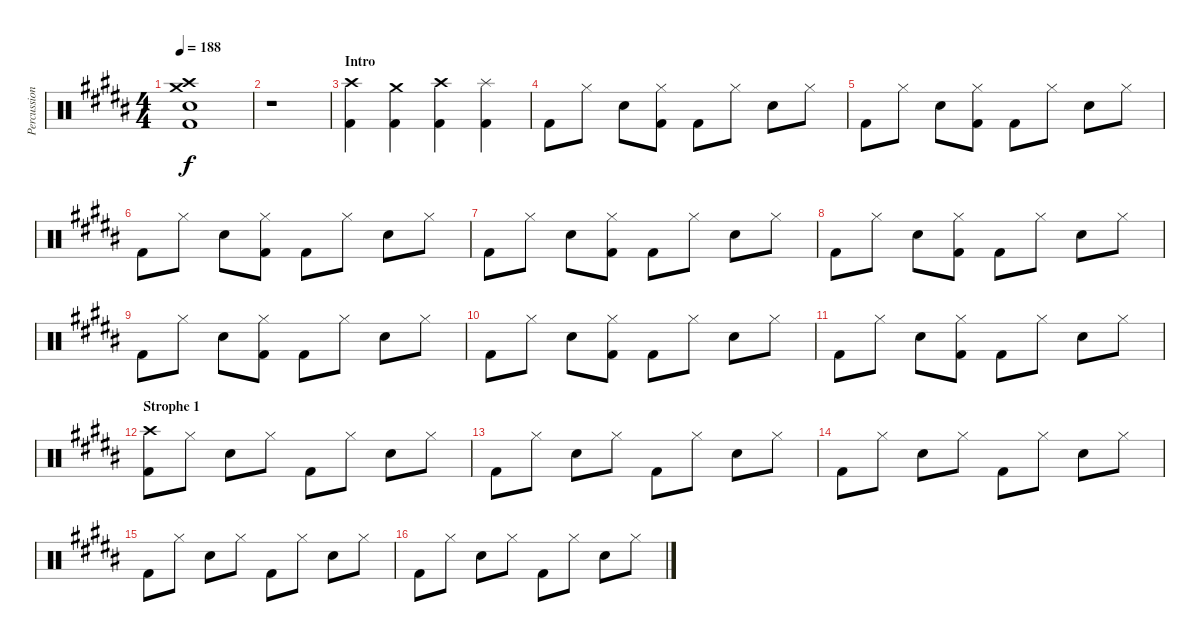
\track ("Percussion" "Percussion") {instrument percussion}
\staff {score}
\articulation defaults
\ts (4 4)
\tempo 188
\clef neutral
\ks b
("Crash high (hit)" "Crash medium (hit)" "Electric Snare (hit)" "Kick (hit) 2").1{dy f} |
r.1 |
\section ("" "Intro")
("Crash high (hit)" "Kick (hit) 2").4 ("Crash medium (hit)" "Kick (hit) 2").4 ("Crash high (hit)" "Kick (hit) 2").4 ("Splash (hit)" "Kick (hit) 2").4 |
"Kick (hit) 2".8 "Hi-Hat (closed)".8 "Electric Snare (hit)".8 ("Hi-Hat (closed)" "Kick (hit) 2").8 "Kick (hit) 2".8 "Hi-Hat (closed)".8 "Electric Snare (hit)".8 "Hi-Hat (closed)".8 |
"Kick (hit) 2".8 "Hi-Hat (closed)".8 "Electric Snare (hit)".8 ("Hi-Hat (closed)" "Kick (hit) 2").8 "Kick (hit) 2".8 "Hi-Hat (closed)".8 "Electric Snare (hit)".8 "Hi-Hat (closed)".8 |
"Kick (hit) 2".8 "Hi-Hat (closed)".8 "Electric Snare (hit)".8 ("Hi-Hat (closed)" "Kick (hit) 2").8 "Kick (hit) 2".8 "Hi-Hat (closed)".8 "Electric Snare (hit)".8 "Hi-Hat (closed)".8 |
"Kick (hit) 2".8 "Hi-Hat (closed)".8 "Electric Snare (hit)".8 ("Hi-Hat (closed)" "Kick (hit) 2").8 "Kick (hit) 2".8 "Hi-Hat (closed)".8 "Electric Snare (hit)".8 "Hi-Hat (closed)".8 |
"Kick (hit) 2".8 "Hi-Hat (closed)".8 "Electric Snare (hit)".8 ("Hi-Hat (closed)" "Kick (hit) 2").8 "Kick (hit) 2".8 "Hi-Hat (closed)".8 "Electric Snare (hit)".8 "Hi-Hat (closed)".8 |
"Kick (hit) 2".8 "Hi-Hat (closed)".8 "Electric Snare (hit)".8 ("Hi-Hat (closed)" "Kick (hit) 2").8 "Kick (hit) 2".8 "Hi-Hat (closed)".8 "Electric Snare (hit)".8 "Hi-Hat (closed)".8 |
"Kick (hit) 2".8 "Hi-Hat (closed)".8 "Electric Snare (hit)".8 ("Hi-Hat (closed)" "Kick (hit) 2").8 "Kick (hit) 2".8 "Hi-Hat (closed)".8 "Electric Snare (hit)".8 "Hi-Hat (closed)".8 |
"Kick (hit) 2".8 "Hi-Hat (closed)".8 "Electric Snare (hit)".8 ("Hi-Hat (closed)" "Kick (hit) 2").8 "Kick (hit) 2".8 "Hi-Hat (closed)".8 "Electric Snare (hit)".8 "Hi-Hat (closed)".8 |
\section ("" "Strophe 1")
("Crash high (hit)" "Kick (hit) 2").8 "Hi-Hat (closed)".8 "Electric Snare (hit)".8 "Hi-Hat (closed)".8 "Kick (hit) 2".8 "Hi-Hat (closed)".8 "Electric Snare (hit)".8 "Hi-Hat (closed)".8 |
"Kick (hit) 2".8 "Hi-Hat (closed)".8 "Electric Snare (hit)".8 "Hi-Hat (closed)".8 "Kick (hit) 2".8 "Hi-Hat (closed)".8 "Electric Snare (hit)".8 "Hi-Hat (closed)".8 |
"Kick (hit) 2".8 "Hi-Hat (closed)".8 "Electric Snare (hit)".8 "Hi-Hat (closed)".8 "Kick (hit) 2".8 "Hi-Hat (closed)".8 "Electric Snare (hit)".8 "Hi-Hat (closed)".8 |
"Kick (hit) 2".8 "Hi-Hat (closed)".8 "Electric Snare (hit)".8 "Hi-Hat (closed)".8 "Kick (hit) 2".8 "Hi-Hat (closed)".8 "Electric Snare (hit)".8 "Hi-Hat (closed)".8 |
"Kick (hit) 2".8 "Hi-Hat (closed)".8 "Electric Snare (hit)".8 "Hi-Hat (closed)".8 "Kick (hit) 2".8 "Hi-Hat (closed)".8 "Electric Snare (hit)".8 "Hi-Hat (closed)".8
